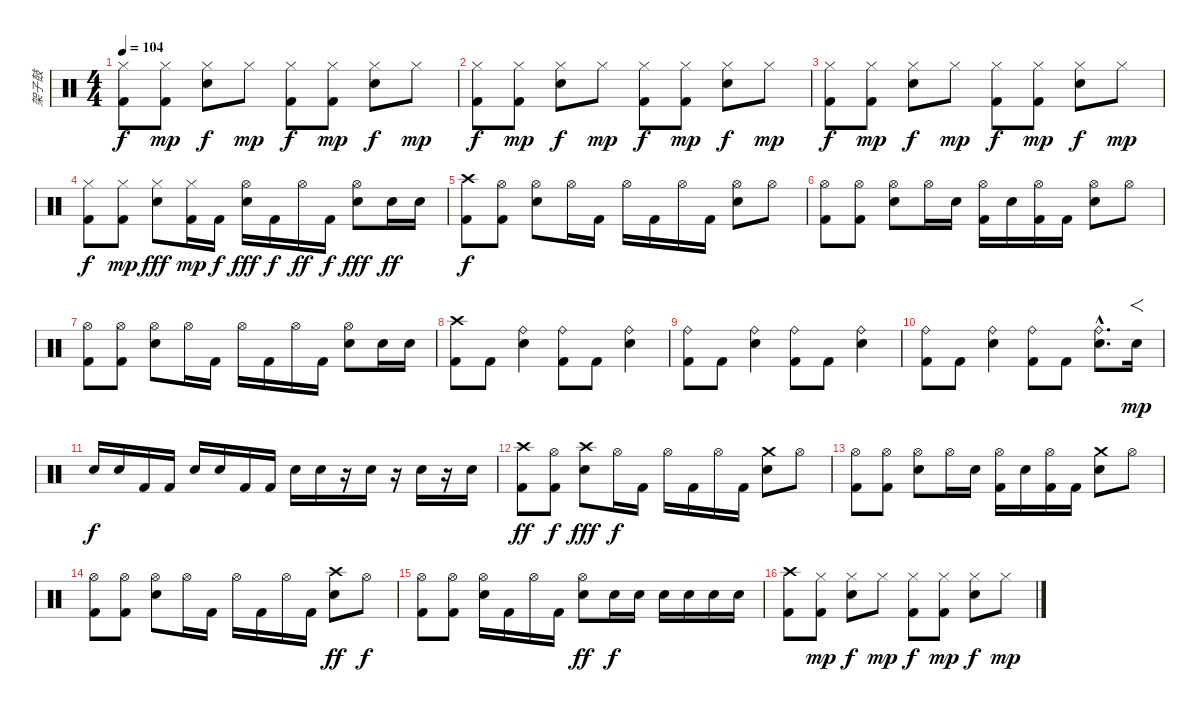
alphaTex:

\track ("架子鼓" "架子鼓") {instrument percussion}
\staff {score}
\articulation defaults
\ts (4 4)
\tempo 104
\clef neutral
\ks c
("Hi-Hat (closed)" "Kick (hit) 2").8{dy f} ("Hi-Hat (closed)" "Kick (hit) 2").8{dy mp} ("Hi-Hat (closed)" "Electric Snare (hit)").8{dy f} "Hi-Hat (closed)".8{dy mp} ("Hi-Hat (closed)" "Kick (hit) 2").8{dy f} ("Hi-Hat (closed)" "Kick (hit) 2").8{dy mp} ("Hi-Hat (closed)" "Electric Snare (hit)").8{dy f} "Hi-Hat (closed)".8{dy mp} |
("Hi-Hat (closed)" "Kick (hit) 2").8{dy f} ("Hi-Hat (closed)" "Kick (hit) 2").8{dy mp} ("Hi-Hat (closed)" "Electric Snare (hit)").8{dy f} "Hi-Hat (closed)".8{dy mp} ("Hi-Hat (closed)" "Kick (hit) 2").8{dy f} ("Hi-Hat (closed)" "Kick (hit) 2").8{dy mp} ("Hi-Hat (closed)" "Electric Snare (hit)").8{dy f} "Hi-Hat (closed)".8{dy mp} |
("Hi-Hat (closed)" "Kick (hit) 2").8{dy f} ("Hi-Hat (closed)" "Kick (hit) 2").8{dy mp} ("Hi-Hat (closed)" "Electric Snare (hit)").8{dy f} "Hi-Hat (closed)".8{dy mp} ("Hi-Hat (closed)" "Kick (hit) 2").8{dy f} ("Hi-Hat (closed)" "Kick (hit) 2").8{dy mp} ("Hi-Hat (closed)" "Electric Snare (hit)").8{dy f} "Hi-Hat (closed)".8{dy mp} |
("Hi-Hat (closed)" "Kick (hit) 2").8{dy f} ("Hi-Hat (closed)" "Kick (hit) 2").8{dy mp} ("Hi-Hat (closed)" "Electric Snare (hit)").8{dy fff} ("Hi-Hat (closed)" "Kick (hit) 2").16{dy mp} "Kick (hit) 2".16{dy f} ("Hi-Hat (open)" "Electric Snare (hit)").16{dy fff} "Kick (hit) 2".16{dy f} "Hi-Hat (open)".16{dy ff} "Kick (hit) 2".16{dy f} ("Hi-Hat (open)" "Electric Snare (hit)").8{dy fff} "Electric Snare (hit)".16{dy ff} "Electric Snare (hit)".16 |
("Crash high (hit)" "Kick (hit) 2").8{dy f} ("Hi-Hat (open)" "Kick (hit) 2").8 ("Hi-Hat (open)" "Electric Snare (hit)").8 "Hi-Hat (open)".16 "Kick (hit) 2".16 "Hi-Hat (open)".16 "Kick (hit) 2".16 "Hi-Hat (open)".16 "Kick (hit) 2".16 ("Hi-Hat (open)" "Electric Snare (hit)").8 "Hi-Hat (open)".8 |
("Hi-Hat (open)" "Kick (hit) 2").8 ("Hi-Hat (open)" "Kick (hit) 2").8 ("Hi-Hat (open)" "Electric Snare (hit)").8 "Hi-Hat (open)".16 "Electric Snare (hit)".16 ("Hi-Hat (open)" "Kick (hit) 2").16 "Electric Snare (hit)".16 ("Hi-Hat (open)" "Kick (hit) 2").16 "Kick (hit) 2".16 ("Hi-Hat (open)" "Electric Snare (hit)").8 "Hi-Hat (open)".8 |
("Hi-Hat (open)" "Kick (hit) 2").8 ("Hi-Hat (open)" "Kick (hit) 2").8 ("Hi-Hat (open)" "Electric Snare (hit)").8 "Hi-Hat (open)".16 "Kick (hit) 2".16 "Hi-Hat (open)".16 "Kick (hit) 2".16 "Hi-Hat (open)".16 "Kick (hit) 2".16 ("Hi-Hat (open)" "Electric Snare (hit)").8 "Electric Snare (hit)".16 "Electric Snare (hit)".16 |
("Crash high (hit)" "Kick (hit) 2").8 "Kick (hit) 2".8 ("Ride (bell)" "Electric Snare (hit)").4 ("Ride (bell)" "Kick (hit) 2").8 "Kick (hit) 2".8 ("Ride (bell)" "Electric Snare (hit)").4 |
("Ride (bell)" "Kick (hit) 2").8 "Kick (hit) 2".8 ("Ride (bell)" "Electric Snare (hit)").4 ("Ride (bell)" "Kick (hit) 2").8 "Kick (hit) 2".8 ("Ride (bell)" "Electric Snare (hit)").4 |
("Ride (bell)" "Kick (hit) 2").8 "Kick (hit) 2".8 ("Ride (bell)" "Electric Snare (hit)").4 ("Ride (bell)" "Kick (hit) 2").8 "Kick (hit) 2".8 ("Ride (bell)"{hac} "Electric Snare (hit)"{hac}).8{d} "Electric Snare (hit)"{tr (40 32)}.16{f dy mp} |
"Electric Snare (hit)".16{dy f} "Electric Snare (hit)".16 "Kick (hit) 2".16 "Kick (hit) 2".16 "Electric Snare (hit)".16 "Electric Snare (hit)".16 "Kick (hit) 2".16 "Kick (hit) 2".16 "Electric Snare (hit)".16 "Electric Snare (hit)".16 r.16 "Electric Snare (hit)".16 r.16 "Electric Snare (hit)".16 r.16 "Electric Snare (hit)".16 |
("Crash high (hit)" "Kick (hit) 2").8{dy ff} ("Hi-Hat (open)" "Kick (hit) 2").8{dy f} ("Crash high (hit)" "Electric Snare (hit)").8{dy fff} "Hi-Hat (open)".16{dy f} "Kick (hit) 2".16 "Hi-Hat (open)".16 "Kick (hit) 2".16 "Hi-Hat (open)".16 "Kick (hit) 2".16 ("Crash medium (hit)" "Electric Snare (hit)").8 "Hi-Hat (open)".8 |
("Hi-Hat (open)" "Kick (hit) 2").8 ("Hi-Hat (open)" "Kick (hit) 2").8 ("Hi-Hat (open)" "Electric Snare (hit)").8 "Hi-Hat (open)".16 "Electric Snare (hit)".16 ("Hi-Hat (open)" "Kick (hit) 2").16 "Electric Snare (hit)".16 ("Hi-Hat (open)" "Kick (hit) 2").16 "Kick (hit) 2".16 ("Crash medium (hit)" "Electric Snare (hit)").8 "Hi-Hat (open)".8 |
("Hi-Hat (open)" "Kick (hit) 2").8 ("Hi-Hat (open)" "Kick (hit) 2").8 ("Hi-Hat (open)" "Electric Snare (hit)").8 "Hi-Hat (open)".16 "Kick (hit) 2".16 "Hi-Hat (open)".16 "Kick (hit) 2".16 "Hi-Hat (open)".16 "Kick (hit) 2".16 ("Crash high (hit)" "Electric Snare (hit)").8{dy ff} "Hi-Hat (open)".8{dy f} |
("Hi-Hat (open)" "Kick (hit) 2").8 ("Hi-Hat (open)" "Kick (hit) 2").8 ("Hi-Hat (open)" "Electric Snare (hit)").16 "Kick (hit) 2".16 "Hi-Hat (open)".16 "Kick (hit) 2".16 ("Hi-Hat (open)" "Electric Snare (hit)").8{dy ff} "Electric Snare (hit)".16{dy f} "Electric Snare (hit)".16 "Electric Snare (hit)".16 "Electric Snare (hit)".16 "Electric Snare (hit)".16 "Electric Snare (hit)".16 |
("Crash high (hit)" "Kick (hit) 2").8 ("Hi-Hat (closed)" "Kick (hit) 2").8{dy mp} ("Hi-Hat (closed)" "Electric Snare (hit)").8{dy f} "Hi-Hat (closed)".8{dy mp} ("Hi-Hat (closed)" "Kick (hit) 2").8{dy f} ("Hi-Hat (closed)" "Kick (hit) 2").8{dy mp} ("Hi-Hat (closed)" "Electric Snare (hit)").8{dy f} "Hi-Hat (closed)".8{dy mp}
